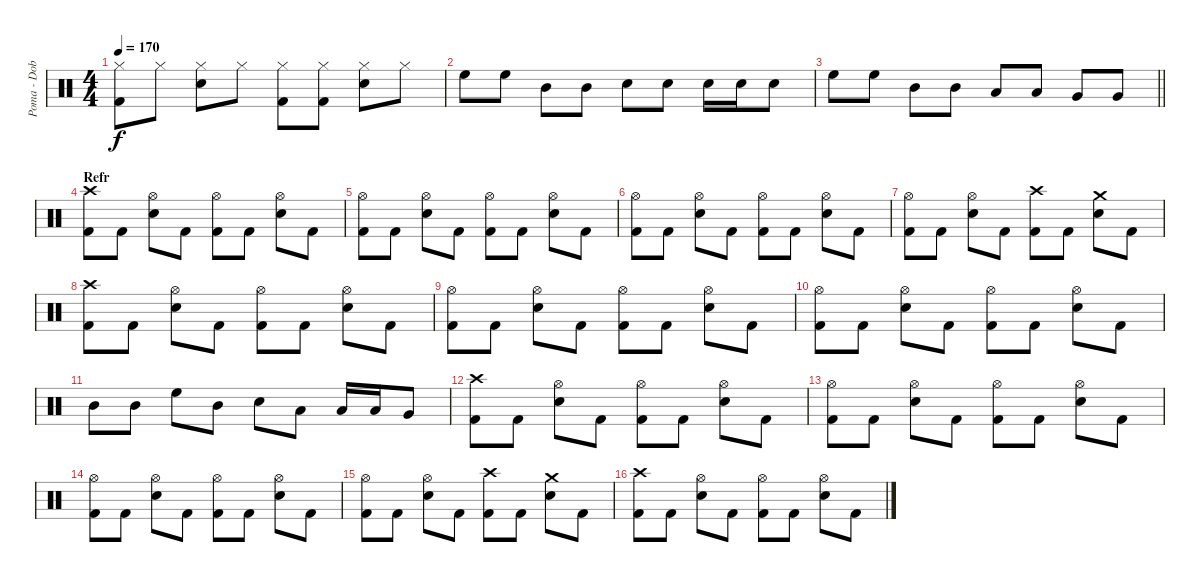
\track ("Poma - Dob" "Poma - Dob") {instrument percussion}
\staff {score}
\articulation defaults
\ts (4 4)
\tempo 170
\clef neutral
\ks c
("Hi-Hat (closed)" "Kick (hit) 2").8{dy f} "Hi-Hat (closed)".8 ("Hi-Hat (closed)" "Electric Snare (hit)").8 "Hi-Hat (closed)".8 ("Hi-Hat (closed)" "Kick (hit) 2").8 ("Hi-Hat (closed)" "Kick (hit) 2").8 ("Hi-Hat (closed)" "Electric Snare (hit)").8 "Hi-Hat (closed)".8 |
"High Floor Tom (hit)".8 "High Floor Tom (hit)".8 "Mid Tom (hit)".8 "Mid Tom (hit)".8 "Electric Snare (hit)".8 "Electric Snare (hit)".8 "Electric Snare (hit)".16 "Electric Snare (hit)".16 "Electric Snare (hit)".8 |
\barLineRight lightlight "High Floor Tom (hit)".8 "High Floor Tom (hit)".8 "Mid Tom (hit)".8 "Mid Tom (hit)".8 "Low Tom (hit)".8 "Low Tom (hit)".8 "Very Low Tom (hit)".8 "Very Low Tom (hit)".8
|
\section ("" "Refr")
("Crash high (hit)" "Kick (hit) 2").8 "Kick (hit) 2".8 ("Hi-Hat (open)" "Electric Snare (hit)").8 "Kick (hit) 2".8 ("Hi-Hat (open)" "Kick (hit) 2").8 "Kick (hit) 2".8 ("Hi-Hat (open)" "Electric Snare (hit)").8 "Kick (hit) 2".8 |
("Hi-Hat (open)" "Kick (hit) 2").8 "Kick (hit) 2".8 ("Hi-Hat (open)" "Electric Snare (hit)").8 "Kick (hit) 2".8 ("Hi-Hat (open)" "Kick (hit) 2").8 "Kick (hit) 2".8 ("Hi-Hat (open)" "Electric Snare (hit)").8 "Kick (hit) 2".8 |
("Hi-Hat (open)" "Kick (hit) 2").8 "Kick (hit) 2".8 ("Hi-Hat (open)" "Electric Snare (hit)").8 "Kick (hit) 2".8 ("Hi-Hat (open)" "Kick (hit) 2").8 "Kick (hit) 2".8 ("Hi-Hat (open)" "Electric Snare (hit)").8 "Kick (hit) 2".8 |
("Hi-Hat (open)" "Kick (hit) 2").8 "Kick (hit) 2".8 ("Hi-Hat (open)" "Electric Snare (hit)").8 "Kick (hit) 2".8 ("Crash high (hit)" "Kick (hit) 2").8 "Kick (hit) 2".8 ("Crash medium (hit)" "Electric Snare (hit)").8 "Kick (hit) 2".8 |
("Crash high (hit)" "Kick (hit) 2").8 "Kick (hit) 2".8 ("Hi-Hat (open)" "Electric Snare (hit)").8 "Kick (hit) 2".8 ("Hi-Hat (open)" "Kick (hit) 2").8 "Kick (hit) 2".8 ("Hi-Hat (open)" "Electric Snare (hit)").8 "Kick (hit) 2".8 |
("Hi-Hat (open)" "Kick (hit) 2").8 "Kick (hit) 2".8 ("Hi-Hat (open)" "Electric Snare (hit)").8 "Kick (hit) 2".8 ("Hi-Hat (open)" "Kick (hit) 2").8 "Kick (hit) 2".8 ("Hi-Hat (open)" "Electric Snare (hit)").8 "Kick (hit) 2".8 |
("Hi-Hat (open)" "Kick (hit) 2").8 "Kick (hit) 2".8 ("Hi-Hat (open)" "Electric Snare (hit)").8 "Kick (hit) 2".8 ("Hi-Hat (open)" "Kick (hit) 2").8 "Kick (hit) 2".8 ("Hi-Hat (open)" "Electric Snare (hit)").8 "Kick (hit) 2".8 |
"Mid Tom (hit)".8 "Mid Tom (hit)".8 "High Floor Tom (hit)".8 "Mid Tom (hit)".8 "Electric Snare (hit)".8 "Low Tom (hit)".8 "Low Tom (hit)".16 "Low Tom (hit)".16 "Very Low Tom (hit)".8 |
("Crash high (hit)" "Kick (hit) 2").8 "Kick (hit) 2".8 ("Hi-Hat (open)" "Electric Snare (hit)").8 "Kick (hit) 2".8 ("Hi-Hat (open)" "Kick (hit) 2").8 "Kick (hit) 2".8 ("Hi-Hat (open)" "Electric Snare (hit)").8 "Kick (hit) 2".8 |
("Hi-Hat (open)" "Kick (hit) 2").8 "Kick (hit) 2".8 ("Hi-Hat (open)" "Electric Snare (hit)").8 "Kick (hit) 2".8 ("Hi-Hat (open)" "Kick (hit) 2").8 "Kick (hit) 2".8 ("Hi-Hat (open)" "Electric Snare (hit)").8 "Kick (hit) 2".8 |
("Hi-Hat (open)" "Kick (hit) 2").8 "Kick (hit) 2".8 ("Hi-Hat (open)" "Electric Snare (hit)").8 "Kick (hit) 2".8 ("Hi-Hat (open)" "Kick (hit) 2").8 "Kick (hit) 2".8 ("Hi-Hat (open)" "Electric Snare (hit)").8 "Kick (hit) 2".8 |
("Hi-Hat (open)" "Kick (hit) 2").8 "Kick (hit) 2".8 ("Hi-Hat (open)" "Electric Snare (hit)").8 "Kick (hit) 2".8 ("Crash high (hit)" "Kick (hit) 2").8 "Kick (hit) 2".8 ("Crash medium (hit)" "Electric Snare (hit)").8 "Kick (hit) 2".8 |
("Crash high (hit)" "Kick (hit) 2").8 "Kick (hit) 2".8 ("Hi-Hat (open)" "Electric Snare (hit)").8 "Kick (hit) 2".8 ("Hi-Hat (open)" "Kick (hit) 2").8 "Kick (hit) 2".8 ("Hi-Hat (open)" "Electric Snare (hit)").8 "Kick (hit) 2".8
